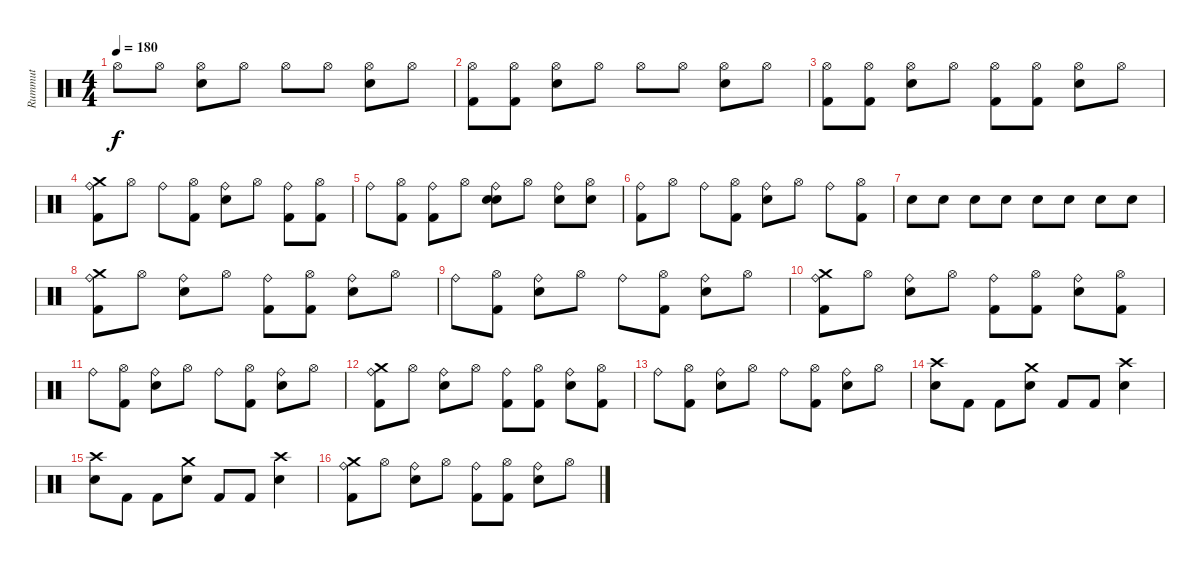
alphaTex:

\track ("Rummut" "Rummut") {instrument percussion}
\staff {score}
\articulation defaults
\ts (4 4)
\tempo 180
\clef neutral
\ks c "Hi-Hat (open)".8{dy f} "Hi-Hat (open)"{x}.8
("Hi-Hat (open)" "Snare (hit) 2").8 "Hi-Hat (open)"{x}.8 "Hi-Hat (open)".8 "Hi-Hat (open)"{x}.8 ("Hi-Hat (open)" "Snare (hit) 2").8 "Hi-Hat (open)"{x}.8 |
("Hi-Hat (open)" "Kick (hit) 2").8 ("Hi-Hat (open)"{x} "Kick (hit) 2").8 ("Hi-Hat (open)" "Snare (hit) 2").8 "Hi-Hat (open)"{x}.8 "Hi-Hat (open)".8 "Hi-Hat (open)"{x}.8 ("Hi-Hat (open)" "Snare (hit) 2").8 "Hi-Hat (open)"{x}.8 |
("Hi-Hat (open)" "Kick (hit) 2").8 ("Hi-Hat (open)"{x} "Kick (hit) 2").8 ("Hi-Hat (open)" "Snare (hit) 2").8 "Hi-Hat (open)"{x}.8 ("Hi-Hat (open)" "Kick (hit) 2").8 ("Hi-Hat (open)"{x} "Kick (hit) 2").8 ("Hi-Hat (open)" "Snare (hit) 2").8 "Hi-Hat (open)"{x}.8 |
("Ride (bell)" "Kick (hit) 2" "Crash medium (hit)").8 "Hi-Hat (open)"{x}.8 "Ride (bell)".8 ("Hi-Hat (open)"{x} "Kick (hit) 2").8 ("Ride (bell)" "Snare (hit) 2").8 "Hi-Hat (open)"{x}.8 ("Ride (bell)" "Kick (hit) 2").8 ("Hi-Hat (open)"{x} "Kick (hit) 2").8 |
"Ride (bell)".8 ("Hi-Hat (open)"{x} "Kick (hit) 2").8 ("Ride (bell)" "Kick (hit) 2").8 "Hi-Hat (open)"{x}.8 ("Ride (bell)" "Snare (hit) 2" "Snare (hit) 2").8 "Hi-Hat (open)"{x}.8 ("Ride (bell)" "Snare (hit) 2").8 ("Hi-Hat (open)"{x} "Snare (hit) 2").8 |
("Ride (bell)" "Kick (hit) 2").8 "Hi-Hat (open)"{x}.8 "Ride (bell)".8 ("Hi-Hat (open)"{x} "Kick (hit) 2").8 ("Ride (bell)" "Snare (hit) 2").8 "Hi-Hat (open)"{x}.8 "Ride (bell)".8 ("Hi-Hat (open)"{x} "Kick (hit) 2").8 |
"Snare (hit) 2".8 "Snare (hit) 2".8 "Snare (hit)"{x}.8 "Snare (hit)"{x}.8 "Snare (hit) 2".8 "Snare (hit) 2".8 "Snare (hit)"{x}.8 "Snare (hit)"{x}.8 |
("Ride (bell)" "Crash medium (hit)" "Kick (hit) 2").8{volume 15} "Hi-Hat (open)"{x}.8 ("Ride (bell)" "Snare (hit) 2").8 "Hi-Hat (open)"{x}.8 ("Ride (bell)" "Kick (hit) 2").8 ("Hi-Hat (open)"{x} "Kick (hit) 2").8 ("Ride (bell)" "Snare (hit) 2").8 "Hi-Hat (open)"{x}.8 |
"Ride (bell)".8 ("Hi-Hat (open)"{x} "Kick (hit) 2").8 ("Ride (bell)" "Snare (hit) 2").8 "Hi-Hat (open)"{x}.8 "Ride (bell)".8 ("Hi-Hat (open)"{x} "Kick (hit) 2").8 ("Ride (bell)" "Snare (hit) 2").8 "Hi-Hat (open)"{x}.8 |
("Ride (bell)" "Crash medium (hit)" "Kick (hit) 2").8 "Hi-Hat (open)"{x}.8 ("Ride (bell)" "Snare (hit) 2").8 "Hi-Hat (open)"{x}.8 ("Ride (bell)" "Kick (hit) 2").8 ("Hi-Hat (open)"{x} "Kick (hit) 2").8 ("Ride (bell)" "Snare (hit) 2").8 ("Hi-Hat (open)"{x} "Kick (hit) 2").8 |
"Ride (bell)".8 ("Hi-Hat (open)"{x} "Kick (hit) 2").8 ("Ride (bell)" "Snare (hit) 2").8 "Hi-Hat (open)"{x}.8 "Ride (bell)".8 ("Hi-Hat (open)"{x} "Kick (hit) 2").8 ("Ride (bell)" "Snare (hit) 2").8 "Hi-Hat (open)"{x}.8 |
("Ride (bell)" "Crash medium (hit)" "Kick (hit) 2").8 "Hi-Hat (open)"{x}.8 ("Ride (bell)" "Snare (hit) 2").8 "Hi-Hat (open)"{x}.8 ("Ride (bell)" "Kick (hit) 2").8 ("Hi-Hat (open)"{x} "Kick (hit) 2").8 ("Ride (bell)" "Snare (hit) 2").8 ("Hi-Hat (open)"{x} "Kick (hit) 2").8 |
"Ride (bell)".8 ("Hi-Hat (open)"{x} "Kick (hit) 2").8 ("Ride (bell)" "Snare (hit) 2").8 "Hi-Hat (open)"{x}.8 "Ride (bell)".8 ("Hi-Hat (open)"{x} "Kick (hit) 2").8 ("Ride (bell)" "Snare (hit) 2").8 "Hi-Hat (open)"{x}.8 |
("Crash high (hit)" "Snare (hit) 2").8 "Kick (hit) 2".8 "Kick (hit) 2".8 ("Crash medium (hit)" "Snare (hit) 2").8 "Kick (hit) 2".8 "Kick (hit) 2".8 ("Crash high (hit)" "Snare (hit) 2").4 |
("Crash high (hit)" "Snare (hit) 2").8 "Kick (hit) 2".8 "Kick (hit) 2".8 ("Crash medium (hit)" "Snare (hit) 2").8 "Kick (hit) 2".8 "Kick (hit) 2".8 ("Crash high (hit)" "Snare (hit) 2").4 |
("Ride (bell)" "Crash medium (hit)" "Kick (hit) 2").8 "Hi-Hat (open)"{x}.8 ("Ride (bell)" "Snare (hit) 2").8 "Hi-Hat (open)"{x}.8 ("Ride (bell)" "Kick (hit) 2").8 ("Hi-Hat (open)"{x} "Kick (hit) 2").8 ("Ride (bell)" "Snare (hit) 2").8 "Hi-Hat (open)"{x}.8
